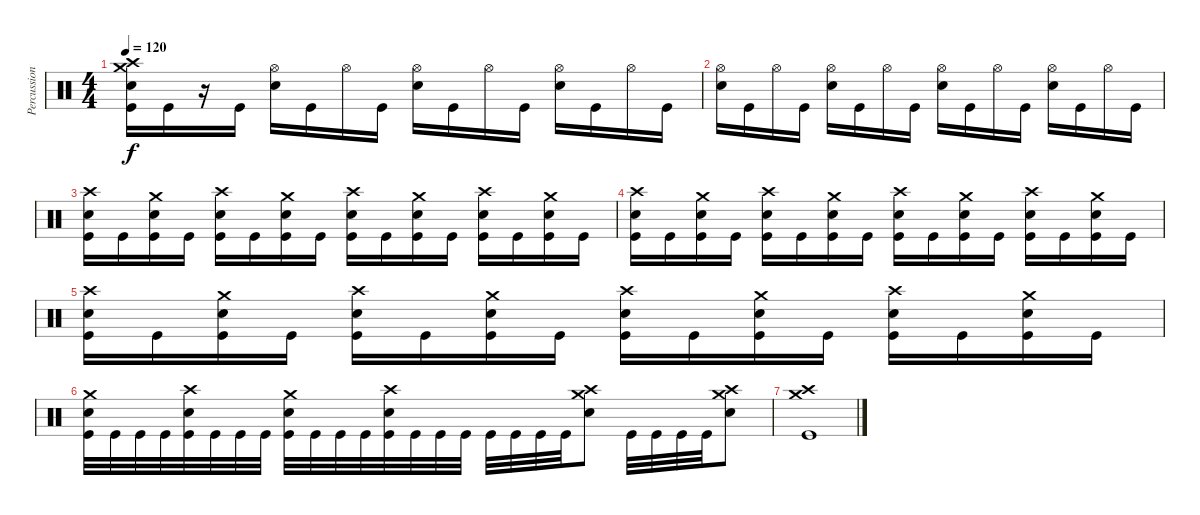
\track ("Percussion" "Percussion") {instrument percussion}
\staff {score}
\articulation defaults
\ts (4 4)
\tempo 120
\clef neutral
\ks c
("Crash high (hit)" "Crash medium (hit)" "Snare (hit) 2" "Kick (hit)").16{dy f} "Kick (hit)".16 r.16 "Kick (hit)".16 ("Hi-Hat (open)" "Snare (hit) 2").16 "Kick (hit)".16 "Hi-Hat (open)".16 "Kick (hit)".16 ("Hi-Hat (open)" "Snare (hit) 2").16 "Kick (hit)".16 "Hi-Hat (open)".16 "Kick (hit)".16 ("Hi-Hat (open)" "Snare (hit) 2").16 "Kick (hit)".16 "Hi-Hat (open)".16 "Kick (hit)".16 |
("Hi-Hat (open)" "Snare (hit) 2").16 "Kick (hit)".16 "Hi-Hat (open)".16 "Kick (hit)".16 ("Hi-Hat (open)" "Snare (hit) 2").16 "Kick (hit)".16 "Hi-Hat (open)".16 "Kick (hit)".16 ("Hi-Hat (open)" "Snare (hit) 2").16 "Kick (hit)".16 "Hi-Hat (open)".16 "Kick (hit)".16 ("Hi-Hat (open)" "Snare (hit) 2").16 "Kick (hit)".16 "Hi-Hat (open)".16 "Kick (hit)".16 |
("Crash high (hit)" "Snare (hit) 2" "Kick (hit)").16 "Kick (hit)".16 ("Crash medium (hit)" "Snare (hit) 2" "Kick (hit)").16 "Kick (hit)".16 ("Crash high (hit)" "Snare (hit) 2" "Kick (hit)").16 "Kick (hit)".16 ("Crash medium (hit)" "Snare (hit) 2" "Kick (hit)").16 "Kick (hit)".16 ("Crash high (hit)" "Snare (hit) 2" "Kick (hit)").16 "Kick (hit)".16 ("Crash medium (hit)" "Snare (hit) 2" "Kick (hit)").16 "Kick (hit)".16 ("Crash high (hit)" "Snare (hit) 2" "Kick (hit)").16 "Kick (hit)".16 ("Crash medium (hit)" "Snare (hit) 2" "Kick (hit)").16 "Kick (hit)".16 |
("Crash high (hit)" "Snare (hit) 2" "Kick (hit)").16 "Kick (hit)".16 ("Crash medium (hit)" "Snare (hit) 2" "Kick (hit)").16 "Kick (hit)".16 ("Crash high (hit)" "Snare (hit) 2" "Kick (hit)").16 "Kick (hit)".16 ("Crash medium (hit)" "Snare (hit) 2" "Kick (hit)").16 "Kick (hit)".16 ("Crash high (hit)" "Snare (hit) 2" "Kick (hit)").16 "Kick (hit)".16 ("Crash medium (hit)" "Snare (hit) 2" "Kick (hit)").16 "Kick (hit)".16 ("Crash high (hit)" "Snare (hit) 2" "Kick (hit)").16 "Kick (hit)".16 ("Crash medium (hit)" "Snare (hit) 2" "Kick (hit)").16 "Kick (hit)".16 |
("Crash high (hit)" "Snare (hit) 2" "Kick (hit)").16 "Kick (hit)".16 ("Crash medium (hit)" "Snare (hit) 2" "Kick (hit)").16 "Kick (hit)".16 ("Crash high (hit)" "Snare (hit) 2" "Kick (hit)").16 "Kick (hit)".16 ("Crash medium (hit)" "Snare (hit) 2" "Kick (hit)").16 "Kick (hit)".16 ("Crash high (hit)" "Snare (hit) 2" "Kick (hit)").16 "Kick (hit)".16 ("Crash medium (hit)" "Snare (hit) 2" "Kick (hit)").16 "Kick (hit)".16 ("Crash high (hit)" "Snare (hit) 2" "Kick (hit)").16 "Kick (hit)".16 ("Crash medium (hit)" "Snare (hit) 2" "Kick (hit)").16 "Kick (hit)".16 |
("Crash medium (hit)" "Snare (hit) 2" "Kick (hit)").32 "Kick (hit)".32 "Kick (hit)".32 "Kick (hit)".32 ("Crash high (hit)" "Snare (hit) 2" "Kick (hit)").32 "Kick (hit)".32 "Kick (hit)".32 "Kick (hit)".32 ("Crash medium (hit)" "Snare (hit) 2" "Kick (hit)").32 "Kick (hit)".32 "Kick (hit)".32 "Kick (hit)".32 ("Crash high (hit)" "Snare (hit) 2" "Kick (hit)").32 "Kick (hit)".32 "Kick (hit)".32 "Kick (hit)".32 "Kick (hit)".32 "Kick (hit)".32 "Kick (hit)".32 "Kick (hit)".32 ("Crash medium (hit)" "Crash high (hit)" "Snare (hit) 2").8 "Kick (hit)".32 "Kick (hit)".32 "Kick (hit)".32 "Kick (hit)".32 ("Crash medium (hit)" "Crash high (hit)" "Snare (hit) 2").8 |
("Crash medium (hit)" "Crash high (hit)" "Kick (hit)").1
